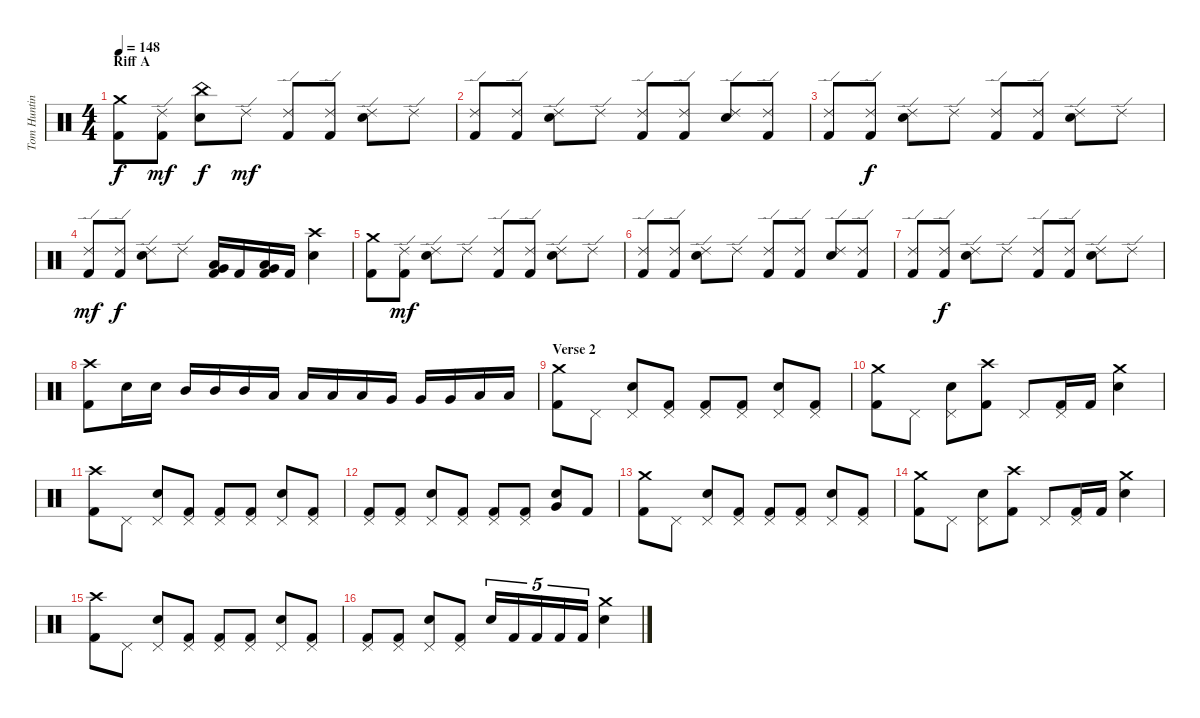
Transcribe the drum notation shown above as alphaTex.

\track ("Tom Hunting" "Tom Huntin") {instrument percussion}
\staff {score}
\articulation defaults
\ts (4 4)
\section ("" "Riff A")
\tempo 148
\clef neutral
\ks c
("Kick (hit) 2" "Crash medium (hit)").8{dy f} ("Kick (hit) 2" "Ride (edge) 2").8{dy mf} ("China (hit)" "Snare (hit) 2").8{dy f} "Ride (edge) 2".8{dy mf} ("Kick (hit) 2" "Ride (edge) 2").8 ("Kick (hit) 2" "Ride (edge) 2").8 ("Ride (edge) 2" "Snare (hit) 2").8 "Ride (edge) 2".8 |
("Kick (hit) 2" "Ride (edge) 2").8 ("Kick (hit) 2" "Ride (edge) 2").8 ("Ride (edge) 2" "Snare (hit) 2").8 "Ride (edge) 2".8 ("Kick (hit) 2" "Ride (edge) 2").8 ("Kick (hit) 2" "Ride (edge) 2").8 ("Ride (edge) 2" "Snare (hit) 2").8 ("Kick (hit) 2" "Ride (edge) 2").8 |
("Kick (hit) 2" "Ride (edge) 2").8 ("Kick (hit) 2" "Ride (edge) 2").8{dy f} ("Ride (edge) 2" "Snare (hit) 2").8 "Ride (edge) 2".8 ("Kick (hit) 2" "Ride (edge) 2").8 ("Kick (hit) 2" "Ride (edge) 2").8 ("Ride (edge) 2" "Snare (hit) 2").8 "Ride (edge) 2".8 |
("Kick (hit) 2" "Ride (edge) 2").8{dy mf} ("Kick (hit) 2" "Ride (edge) 2").8{dy f} ("Ride (edge) 2" "Snare (hit) 2").8 "Ride (edge) 2".8 ("Kick (hit) 2" "Low Tom (hit)" "Very Low Tom (hit)").16 "Kick (hit) 2".16 ("Kick (hit) 2" "Low Tom (hit)" "Very Low Tom (hit)").16 "Kick (hit) 2".16 ("Crash high (hit)" "Snare (hit) 2").4 |
("Kick (hit) 2" "Crash medium (hit)").8 ("Kick (hit) 2" "Ride (edge) 2").8{dy mf} ("Ride (edge) 2" "Snare (hit) 2").8 "Ride (edge) 2".8 ("Kick (hit) 2" "Ride (edge) 2").8 ("Kick (hit) 2" "Ride (edge) 2").8 ("Ride (edge) 2" "Snare (hit) 2").8 "Ride (edge) 2".8 |
("Kick (hit) 2" "Ride (edge) 2").8 ("Kick (hit) 2" "Ride (edge) 2").8 ("Ride (edge) 2" "Snare (hit) 2").8 "Ride (edge) 2".8 ("Kick (hit) 2" "Ride (edge) 2").8 ("Kick (hit) 2" "Ride (edge) 2").8 ("Ride (edge) 2" "Snare (hit) 2").8 ("Kick (hit) 2" "Ride (edge) 2").8 |
("Kick (hit) 2" "Ride (edge) 2").8 ("Kick (hit) 2" "Ride (edge) 2").8{dy f} ("Ride (edge) 2" "Snare (hit) 2").8 "Ride (edge) 2".8 ("Kick (hit) 2" "Ride (edge) 2").8 ("Kick (hit) 2" "Ride (edge) 2").8 ("Ride (edge) 2" "Snare (hit) 2").8 "Ride (edge) 2".8 |
("Kick (hit) 2" "Crash high (hit)").8 "Snare (hit) 2".16 "Snare (hit) 2".16 "Mid Tom (hit)".16 "Mid Tom (hit)".16 "Mid Tom (hit)".16 "Low Tom (hit)".16 "Low Tom (hit)".16 "Low Tom (hit)".16 "Low Tom (hit)".16 "Very Low Tom (hit)".16 "Very Low Tom (hit)".16 "Very Low Tom (hit)".16 "Low Floor Tom (hit)".16 "Low Floor Tom (hit)".16 |
\section ("" "Verse 2")
("Kick (hit) 2" "Crash medium (hit)").8 "Pedal Hi-Hat (hit)".8 ("Pedal Hi-Hat (hit)" "Snare (hit) 2").8 ("Kick (hit) 2" "Pedal Hi-Hat (hit)").8 ("Kick (hit) 2" "Pedal Hi-Hat (hit)").8 ("Kick (hit) 2" "Pedal Hi-Hat (hit)").8 ("Pedal Hi-Hat (hit)" "Snare (hit) 2").8 ("Kick (hit) 2" "Pedal Hi-Hat (hit)").8 |
("Kick (hit) 2" "Crash medium (hit)").8 "Pedal Hi-Hat (hit)".8 ("Pedal Hi-Hat (hit)" "Snare (hit) 2").8 ("Kick (hit) 2" "Crash high (hit)").8 "Pedal Hi-Hat (hit)".8 ("Kick (hit) 2" "Pedal Hi-Hat (hit)").16 "Kick (hit) 2".16 ("Crash medium (hit)" "Snare (hit) 2").4 |
("Kick (hit) 2" "Crash high (hit)").8 "Pedal Hi-Hat (hit)".8 ("Pedal Hi-Hat (hit)" "Snare (hit) 2").8 ("Kick (hit) 2" "Pedal Hi-Hat (hit)").8 ("Kick (hit) 2" "Pedal Hi-Hat (hit)").8 ("Kick (hit) 2" "Pedal Hi-Hat (hit)").8 ("Pedal Hi-Hat (hit)" "Snare (hit) 2").8 ("Kick (hit) 2" "Pedal Hi-Hat (hit)").8 |
("Kick (hit) 2" "Pedal Hi-Hat (hit)").8 ("Kick (hit) 2" "Pedal Hi-Hat (hit)").8 ("Pedal Hi-Hat (hit)" "Snare (hit) 2").8 ("Kick (hit) 2" "Pedal Hi-Hat (hit)").8 ("Kick (hit) 2" "Pedal Hi-Hat (hit)").8 ("Kick (hit) 2" "Pedal Hi-Hat (hit)").8 ("Snare (hit) 2" "Very Low Tom (hit)").8 "Kick (hit) 2".8 |
("Kick (hit) 2" "Crash medium (hit)").8 "Pedal Hi-Hat (hit)".8 ("Pedal Hi-Hat (hit)" "Snare (hit) 2").8 ("Kick (hit) 2" "Pedal Hi-Hat (hit)").8 ("Kick (hit) 2" "Pedal Hi-Hat (hit)").8 ("Kick (hit) 2" "Pedal Hi-Hat (hit)").8 ("Pedal Hi-Hat (hit)" "Snare (hit) 2").8 ("Kick (hit) 2" "Pedal Hi-Hat (hit)").8 |
("Kick (hit) 2" "Crash medium (hit)").8 "Pedal Hi-Hat (hit)".8 ("Pedal Hi-Hat (hit)" "Snare (hit) 2").8 ("Kick (hit) 2" "Crash high (hit)").8 "Pedal Hi-Hat (hit)".8 ("Kick (hit) 2" "Pedal Hi-Hat (hit)").16 "Kick (hit) 2".16 ("Crash medium (hit)" "Snare (hit) 2").4 |
("Kick (hit) 2" "Crash high (hit)").8 "Pedal Hi-Hat (hit)".8 ("Pedal Hi-Hat (hit)" "Snare (hit) 2").8 ("Kick (hit) 2" "Pedal Hi-Hat (hit)").8 ("Kick (hit) 2" "Pedal Hi-Hat (hit)").8 ("Kick (hit) 2" "Pedal Hi-Hat (hit)").8 ("Pedal Hi-Hat (hit)" "Snare (hit) 2").8 ("Kick (hit) 2" "Pedal Hi-Hat (hit)").8 |
("Kick (hit) 2" "Pedal Hi-Hat (hit)").8 ("Kick (hit) 2" "Pedal Hi-Hat (hit)").8 ("Pedal Hi-Hat (hit)" "Snare (hit) 2").8 ("Kick (hit) 2" "Pedal Hi-Hat (hit)").8 "Snare (hit) 2".16{tu (5 4)} "Kick (hit) 2".16{tu (5 4)} "Kick (hit) 2".16{tu (5 4)} "Kick (hit) 2".16{tu (5 4)} "Kick (hit) 2".16{tu (5 4)} ("Crash medium (hit)" "Snare (hit) 2").4
